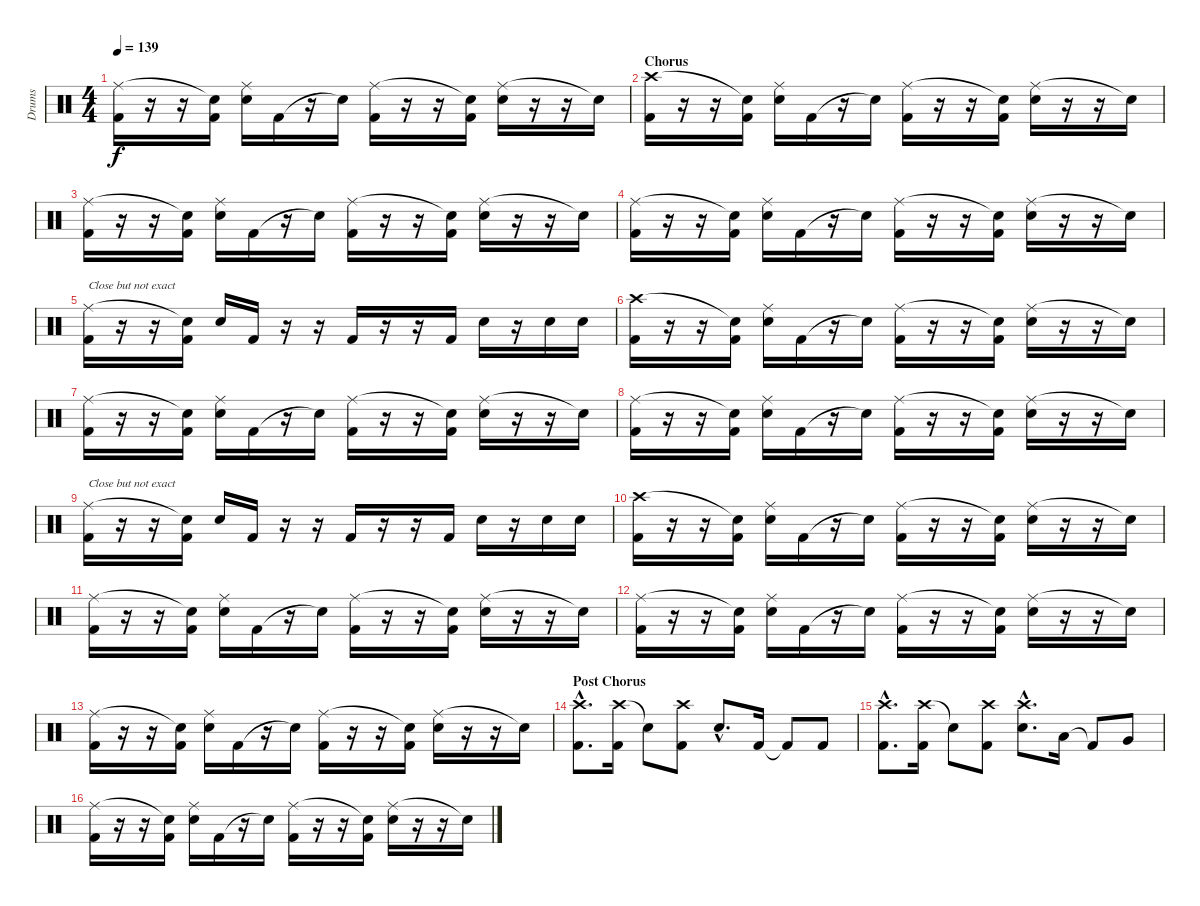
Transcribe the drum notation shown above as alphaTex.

\track ("Drums" "Drums") {instrument percussion}
\staff {score}
\articulation defaults
\ts (4 4)
\tempo 139
\clef neutral
\ks c
("Ride (middle)" "Kick (hit) 2").16{dy f} r.16 r.16 ("Snare (hit)"{t} "Kick (hit) 2").16 ("Ride (middle)" "Snare (hit) 2").16 "Kick (hit) 2".16 r.16 "Snare (hit)"{t}.16 ("Ride (middle)" "Kick (hit) 2").16 r.16 r.16 ("Snare (hit)"{t} "Kick (hit) 2").16 ("Ride (middle)" "Snare (hit) 2").16 r.16 r.16 "Snare (hit)"{t}.16 |
\section ("" "Chorus")
("Crash high (hit)" "Kick (hit) 2").16 r.16 r.16 ("Snare (hit)"{t} "Kick (hit) 2").16 ("Ride (middle)" "Snare (hit) 2").16 "Kick (hit) 2".16 r.16 "Snare (hit)"{t}.16 ("Ride (middle)" "Kick (hit) 2").16 r.16 r.16 ("Snare (hit)"{t} "Kick (hit) 2").16 ("Ride (middle)" "Snare (hit) 2").16 r.16 r.16 "Snare (hit)"{t}.16 |
("Ride (middle)" "Kick (hit) 2").16 r.16 r.16 ("Snare (hit)"{t} "Kick (hit) 2").16 ("Ride (middle)" "Snare (hit) 2").16 "Kick (hit) 2".16 r.16 "Snare (hit)"{t}.16 ("Ride (middle)" "Kick (hit) 2").16 r.16 r.16 ("Snare (hit)"{t} "Kick (hit) 2").16 ("Ride (middle)" "Snare (hit) 2").16 r.16 r.16 "Snare (hit)"{t}.16 |
("Ride (middle)" "Kick (hit) 2").16 r.16 r.16 ("Snare (hit)"{t} "Kick (hit) 2").16 ("Ride (middle)" "Snare (hit) 2").16 "Kick (hit) 2".16 r.16 "Snare (hit)"{t}.16 ("Ride (middle)" "Kick (hit) 2").16 r.16 r.16 ("Snare (hit)"{t} "Kick (hit) 2").16 ("Ride (middle)" "Snare (hit) 2").16 r.16 r.16 "Snare (hit)"{t}.16 |
("Ride (middle)" "Kick (hit) 2").16{txt "Close but not exact"} r.16 r.16 ("Snare (hit)"{t} "Kick (hit) 2").16 "Snare (hit) 2".16 "Kick (hit) 2".16 r.16 r.16 "Kick (hit) 2".16 r.16 r.16 "Kick (hit) 2".16 "Snare (hit) 2".16 r.16 "Snare (hit) 2".16 "Snare (hit) 2".16 |
("Crash high (hit)" "Kick (hit) 2").16 r.16 r.16 ("Snare (hit)"{t} "Kick (hit) 2").16 ("Ride (middle)" "Snare (hit) 2").16 "Kick (hit) 2".16 r.16 "Snare (hit)"{t}.16 ("Ride (middle)" "Kick (hit) 2").16 r.16 r.16 ("Snare (hit)"{t} "Kick (hit) 2").16 ("Ride (middle)" "Snare (hit) 2").16 r.16 r.16 "Snare (hit)"{t}.16 |
("Ride (middle)" "Kick (hit) 2").16 r.16 r.16 ("Snare (hit)"{t} "Kick (hit) 2").16 ("Ride (middle)" "Snare (hit) 2").16 "Kick (hit) 2".16 r.16 "Snare (hit)"{t}.16 ("Ride (middle)" "Kick (hit) 2").16 r.16 r.16 ("Snare (hit)"{t} "Kick (hit) 2").16 ("Ride (middle)" "Snare (hit) 2").16 r.16 r.16 "Snare (hit)"{t}.16 |
("Ride (middle)" "Kick (hit) 2").16 r.16 r.16 ("Snare (hit)"{t} "Kick (hit) 2").16 ("Ride (middle)" "Snare (hit) 2").16 "Kick (hit) 2".16 r.16 "Snare (hit)"{t}.16 ("Ride (middle)" "Kick (hit) 2").16 r.16 r.16 ("Snare (hit)"{t} "Kick (hit) 2").16 ("Ride (middle)" "Snare (hit) 2").16 r.16 r.16 "Snare (hit)"{t}.16 |
("Ride (middle)" "Kick (hit) 2").16{txt "Close but not exact"} r.16 r.16 ("Snare (hit)"{t} "Kick (hit) 2").16 "Snare (hit) 2".16 "Kick (hit) 2".16 r.16 r.16 "Kick (hit) 2".16 r.16 r.16 "Kick (hit) 2".16 "Snare (hit) 2".16 r.16 "Snare (hit) 2".16 "Snare (hit) 2".16 |
("Crash high (hit)" "Kick (hit) 2").16 r.16 r.16 ("Snare (hit)"{t} "Kick (hit) 2").16 ("Ride (middle)" "Snare (hit) 2").16 "Kick (hit) 2".16 r.16 "Snare (hit)"{t}.16 ("Ride (middle)" "Kick (hit) 2").16 r.16 r.16 ("Snare (hit)"{t} "Kick (hit) 2").16 ("Ride (middle)" "Snare (hit) 2").16 r.16 r.16 "Snare (hit)"{t}.16 |
("Ride (middle)" "Kick (hit) 2").16 r.16 r.16 ("Snare (hit)"{t} "Kick (hit) 2").16 ("Ride (middle)" "Snare (hit) 2").16 "Kick (hit) 2".16 r.16 "Snare (hit)"{t}.16 ("Ride (middle)" "Kick (hit) 2").16 r.16 r.16 ("Snare (hit)"{t} "Kick (hit) 2").16 ("Ride (middle)" "Snare (hit) 2").16 r.16 r.16 "Snare (hit)"{t}.16 |
("Ride (middle)" "Kick (hit) 2").16 r.16 r.16 ("Snare (hit)"{t} "Kick (hit) 2").16 ("Ride (middle)" "Snare (hit) 2").16 "Kick (hit) 2".16 r.16 "Snare (hit)"{t}.16 ("Ride (middle)" "Kick (hit) 2").16 r.16 r.16 ("Snare (hit)"{t} "Kick (hit) 2").16 ("Ride (middle)" "Snare (hit) 2").16 r.16 r.16 "Snare (hit)"{t}.16 |
("Ride (middle)" "Kick (hit) 2").16 r.16 r.16 ("Snare (hit)"{t} "Kick (hit) 2").16 ("Ride (middle)" "Snare (hit) 2").16 "Kick (hit) 2".16 r.16 "Snare (hit)"{t}.16 ("Ride (middle)" "Kick (hit) 2").16 r.16 r.16 ("Snare (hit)"{t} "Kick (hit) 2").16 ("Ride (middle)" "Snare (hit) 2").16 r.16 r.16 "Snare (hit)"{t}.16 |
\section ("" "Post Chorus")
("Crash high (hit)"{hac} "Kick (hit) 2"{hac}).8{d} ("Crash high (hit)" "Kick (hit) 2").16 "Snare (hit)"{t}.8 ("Crash high (hit)" "Kick (hit) 2").8 "Snare (hit) 2"{hac}.8{d} "Kick (hit) 2".16 "Kick (hit) 2"{t}.8 "Kick (hit) 2".8 |
("Crash high (hit)"{hac} "Kick (hit) 2"{hac}).8{d} ("Crash high (hit)" "Kick (hit) 2").16 "Snare (hit)"{t}.8 ("Crash high (hit)" "Kick (hit) 2").8 ("Crash high (hit)"{hac} "Snare (hit) 2"{hac}).8{d} "Low Tom (hit)".16 "Kick (hit) 2"{t}.8 "Very Low Tom (hit)".8 |
("Ride (middle)" "Kick (hit) 2").16 r.16 r.16 ("Snare (hit)"{t} "Kick (hit) 2").16 ("Ride (middle)" "Snare (hit) 2").16 "Kick (hit) 2".16 r.16 "Snare (hit)"{t}.16 ("Ride (middle)" "Kick (hit) 2").16 r.16 r.16 ("Snare (hit)"{t} "Kick (hit) 2").16 ("Ride (middle)" "Snare (hit) 2").16 r.16 r.16 "Snare (hit)"{t}.16
